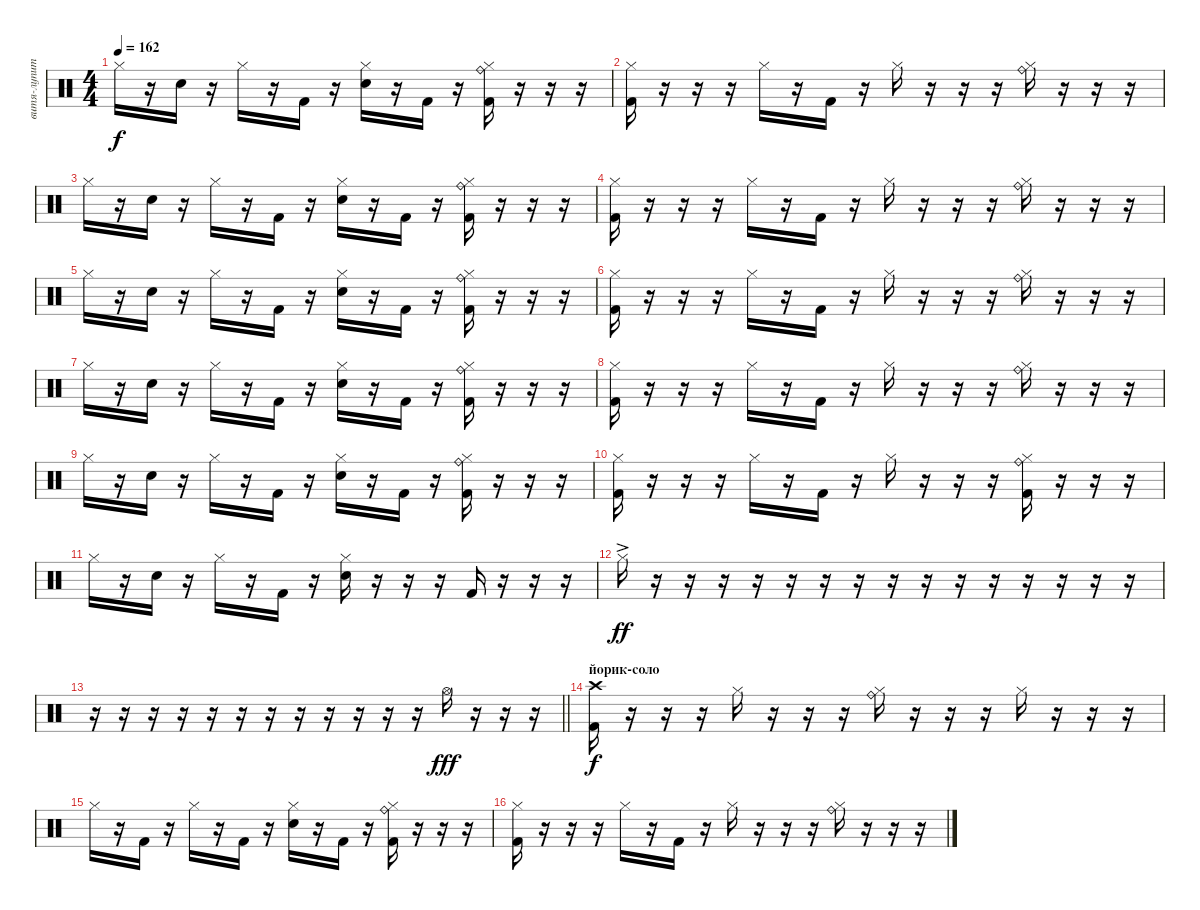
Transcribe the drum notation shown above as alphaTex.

\track ("витя-лупит" "витя-лупит") {instrument percussion}
\staff {score}
\articulation defaults
\ts (4 4)
\tempo 162
\clef neutral
\ks c "Hi-Hat (closed)".16{dy f}
r.16 "Snare (hit) 2".16 r.16 "Hi-Hat (closed)".16 r.16 "Kick (hit) 2".16 r.16 ("Snare (hit) 2" "Hi-Hat (closed)").16 r.16 "Kick (hit) 2".16 r.16 ("Kick (hit) 2" "Ride (bell)" "Hi-Hat (closed)").16 r.16 r.16 r.16 |
("Kick (hit) 2" "Hi-Hat (closed)").16 r.16 r.16 r.16 "Hi-Hat (closed)".16 r.16 "Kick (hit) 2".16 r.16 "Hi-Hat (closed)".16 r.16 r.16 r.16 ("Ride (bell)" "Hi-Hat (closed)").16 r.16 r.16 r.16 |
"Hi-Hat (closed)".16 r.16 "Snare (hit) 2".16 r.16 "Hi-Hat (closed)".16 r.16 "Kick (hit) 2".16 r.16 ("Snare (hit) 2" "Hi-Hat (closed)").16 r.16 "Kick (hit) 2".16 r.16 ("Kick (hit) 2" "Ride (bell)" "Hi-Hat (closed)").16 r.16 r.16 r.16 |
("Kick (hit) 2" "Hi-Hat (closed)").16 r.16 r.16 r.16 "Hi-Hat (closed)".16 r.16 "Kick (hit) 2".16 r.16 "Hi-Hat (closed)".16 r.16 r.16 r.16 ("Ride (bell)" "Hi-Hat (closed)").16 r.16 r.16 r.16 |
"Hi-Hat (closed)".16 r.16 "Snare (hit) 2".16 r.16 "Hi-Hat (closed)".16 r.16 "Kick (hit) 2".16 r.16 ("Snare (hit) 2" "Hi-Hat (closed)").16 r.16 "Kick (hit) 2".16 r.16 ("Kick (hit) 2" "Ride (bell)" "Hi-Hat (closed)").16 r.16 r.16 r.16 |
("Kick (hit) 2" "Hi-Hat (closed)").16 r.16 r.16 r.16 "Hi-Hat (closed)".16 r.16 "Kick (hit) 2".16 r.16 "Hi-Hat (closed)".16 r.16 r.16 r.16 ("Ride (bell)" "Hi-Hat (closed)").16 r.16 r.16 r.16 |
"Hi-Hat (closed)".16 r.16 "Snare (hit) 2".16 r.16 "Hi-Hat (closed)".16 r.16 "Kick (hit) 2".16 r.16 ("Snare (hit) 2" "Hi-Hat (closed)").16 r.16 "Kick (hit) 2".16 r.16 ("Kick (hit) 2" "Ride (bell)" "Hi-Hat (closed)").16 r.16 r.16 r.16 |
("Kick (hit) 2" "Hi-Hat (closed)").16 r.16 r.16 r.16 "Hi-Hat (closed)".16 r.16 "Kick (hit) 2".16 r.16 "Hi-Hat (closed)".16 r.16 r.16 r.16 ("Ride (bell)" "Hi-Hat (closed)").16 r.16 r.16 r.16 |
"Hi-Hat (closed)".16 r.16 "Snare (hit) 2".16 r.16 "Hi-Hat (closed)".16 r.16 "Kick (hit) 2".16 r.16 ("Snare (hit) 2" "Hi-Hat (closed)").16 r.16 "Kick (hit) 2".16 r.16 ("Kick (hit) 2" "Ride (bell)" "Hi-Hat (closed)").16 r.16 r.16 r.16 |
("Kick (hit) 2" "Hi-Hat (closed)").16 r.16 r.16 r.16 "Hi-Hat (closed)".16 r.16 "Kick (hit) 2".16 r.16 "Hi-Hat (closed)".16 r.16 r.16 r.16 ("Kick (hit) 2" "Ride (bell)" "Hi-Hat (closed)").16 r.16 r.16 r.16 |
"Hi-Hat (closed)".16 r.16 "Snare (hit) 2".16 r.16 "Hi-Hat (closed)".16 r.16 "Kick (hit) 2".16 r.16 ("Snare (hit) 2" "Hi-Hat (closed)").16 r.16 r.16 r.16 "Kick (hit) 2".16 r.16 r.16 r.16 |
"Hi-Hat (closed)"{ac}.16{dy ff} r.16 r.16 r.16 r.16 r.16 r.16 r.16 r.16 r.16 r.16 r.16 r.16 r.16 r.16 r.16{volume 0} |
\barLineRight lightlight
r.16 r.16 r.16 r.16 r.16 r.16 r.16 r.16 r.16 r.16 r.16 r.16 "Hi-Hat (open)".16{dy fff volume 16} r.16 r.16 r.16 |
\section ("" "йорик-соло")
("Crash high (hit)" "Kick (hit) 2").16{dy f} r.16 r.16 r.16 "Hi-Hat (closed)".16 r.16 r.16 r.16 ("Ride (bell)" "Hi-Hat (closed)").16 r.16 r.16 r.16 "Hi-Hat (closed)".16 r.16 r.16 r.16 |
"Hi-Hat (closed)".16 r.16 "Kick (hit) 2".16 r.16 "Hi-Hat (closed)".16 r.16 "Kick (hit) 2".16 r.16 ("Snare (hit) 2" "Hi-Hat (closed)").16 r.16 "Kick (hit) 2".16 r.16 ("Kick (hit) 2" "Ride (bell)" "Hi-Hat (closed)").16 r.16 r.16 r.16 |
("Kick (hit) 2" "Hi-Hat (closed)").16 r.16 r.16 r.16 "Hi-Hat (closed)".16 r.16 "Kick (hit) 2".16 r.16 "Hi-Hat (closed)".16 r.16 r.16 r.16 ("Ride (bell)" "Hi-Hat (closed)").16 r.16 r.16 r.16
